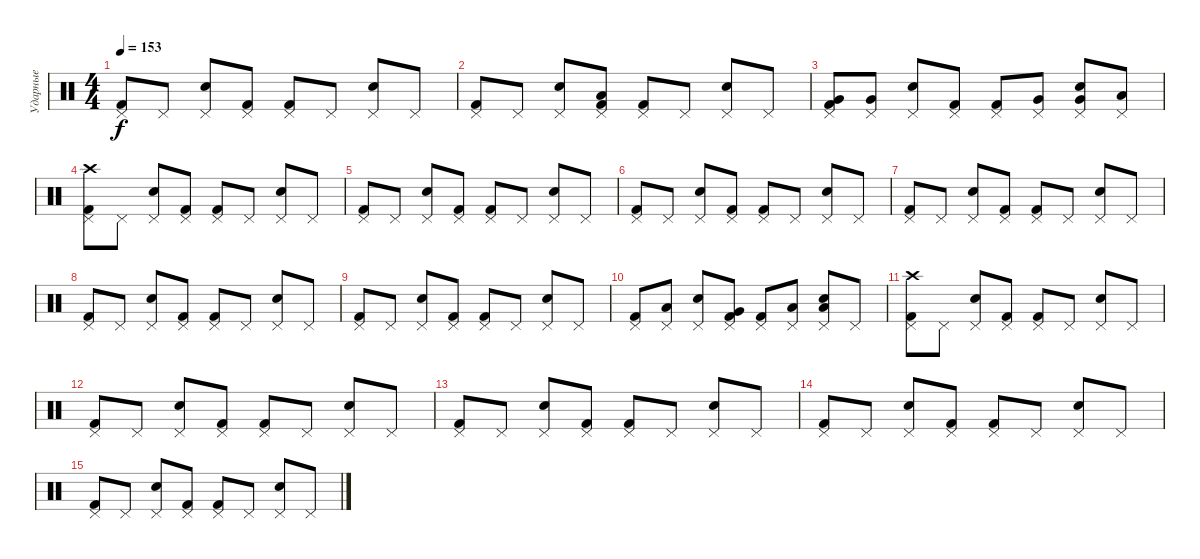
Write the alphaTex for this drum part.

\track ("Ударные" "Ударные") {instrument percussion}
\staff {score}
\articulation defaults
\ts (4 4)
\tempo 153
\clef neutral
\ks c
("Pedal Hi-Hat (hit)" "Kick (hit) 2").8{dy f} "Pedal Hi-Hat (hit)".8 ("Electric Snare (hit)" "Pedal Hi-Hat (hit)").8 ("Pedal Hi-Hat (hit)" "Kick (hit) 2").8 ("Pedal Hi-Hat (hit)" "Kick (hit) 2").8 "Pedal Hi-Hat (hit)".8 ("Electric Snare (hit)" "Pedal Hi-Hat (hit)").8 "Pedal Hi-Hat (hit)".8 |
("Pedal Hi-Hat (hit)" "Kick (hit) 2").8 "Pedal Hi-Hat (hit)".8 ("Electric Snare (hit)" "Pedal Hi-Hat (hit)").8 ("Low Tom (hit)" "Pedal Hi-Hat (hit)" "Kick (hit) 2").8 ("Pedal Hi-Hat (hit)" "Kick (hit) 2").8 "Pedal Hi-Hat (hit)".8 ("Electric Snare (hit)" "Pedal Hi-Hat (hit)").8 "Pedal Hi-Hat (hit)".8 |
("Very Low Tom (hit)" "Pedal Hi-Hat (hit)" "Kick (hit) 2").8 ("Very Low Tom (hit)" "Pedal Hi-Hat (hit)").8 ("Electric Snare (hit)" "Pedal Hi-Hat (hit)").8 ("Pedal Hi-Hat (hit)" "Kick (hit) 2").8 ("Pedal Hi-Hat (hit)" "Kick (hit) 2").8 ("Very Low Tom (hit)" "Pedal Hi-Hat (hit)").8 ("Very Low Tom (hit)" "Electric Snare (hit)" "Pedal Hi-Hat (hit)").8 ("Low Floor Tom (hit)" "Pedal Hi-Hat (hit)").8 |
("Crash high (hit)" "Pedal Hi-Hat (hit)" "Kick (hit) 2").8 "Pedal Hi-Hat (hit)".8 ("Electric Snare (hit)" "Pedal Hi-Hat (hit)").8 ("Pedal Hi-Hat (hit)" "Kick (hit) 2").8 ("Pedal Hi-Hat (hit)" "Kick (hit) 2").8 "Pedal Hi-Hat (hit)".8 ("Electric Snare (hit)" "Pedal Hi-Hat (hit)").8 "Pedal Hi-Hat (hit)".8 |
("Pedal Hi-Hat (hit)" "Kick (hit) 2").8{volume 10} "Pedal Hi-Hat (hit)".8 ("Electric Snare (hit)" "Pedal Hi-Hat (hit)").8 ("Pedal Hi-Hat (hit)" "Kick (hit) 2").8 ("Pedal Hi-Hat (hit)" "Kick (hit) 2").8 "Pedal Hi-Hat (hit)".8 ("Electric Snare (hit)" "Pedal Hi-Hat (hit)").8 "Pedal Hi-Hat (hit)".8 |
("Pedal Hi-Hat (hit)" "Kick (hit) 2").8 "Pedal Hi-Hat (hit)".8 ("Electric Snare (hit)" "Pedal Hi-Hat (hit)").8 ("Pedal Hi-Hat (hit)" "Kick (hit) 2").8 ("Pedal Hi-Hat (hit)" "Kick (hit) 2").8 "Pedal Hi-Hat (hit)".8 ("Electric Snare (hit)" "Pedal Hi-Hat (hit)").8 "Pedal Hi-Hat (hit)".8 |
("Pedal Hi-Hat (hit)" "Kick (hit) 2").8 "Pedal Hi-Hat (hit)".8 ("Electric Snare (hit)" "Pedal Hi-Hat (hit)").8 ("Pedal Hi-Hat (hit)" "Kick (hit) 2").8 ("Pedal Hi-Hat (hit)" "Kick (hit) 2").8 "Pedal Hi-Hat (hit)".8 ("Electric Snare (hit)" "Pedal Hi-Hat (hit)").8 "Pedal Hi-Hat (hit)".8 |
("Pedal Hi-Hat (hit)" "Kick (hit) 2").8{volume 7} "Pedal Hi-Hat (hit)".8 ("Electric Snare (hit)" "Pedal Hi-Hat (hit)").8 ("Pedal Hi-Hat (hit)" "Kick (hit) 2").8 ("Pedal Hi-Hat (hit)" "Kick (hit) 2").8 "Pedal Hi-Hat (hit)".8 ("Electric Snare (hit)" "Pedal Hi-Hat (hit)").8 "Pedal Hi-Hat (hit)".8 |
("Pedal Hi-Hat (hit)" "Kick (hit) 2").8 "Pedal Hi-Hat (hit)".8 ("Electric Snare (hit)" "Pedal Hi-Hat (hit)").8 ("Pedal Hi-Hat (hit)" "Kick (hit) 2").8 ("Pedal Hi-Hat (hit)" "Kick (hit) 2").8 "Pedal Hi-Hat (hit)".8 ("Electric Snare (hit)" "Pedal Hi-Hat (hit)").8 "Pedal Hi-Hat (hit)".8 |
("Pedal Hi-Hat (hit)" "Kick (hit) 2").8 ("Low Tom (hit)" "Pedal Hi-Hat (hit)").8 ("Electric Snare (hit)" "Pedal Hi-Hat (hit)").8 ("Very Low Tom (hit)" "Pedal Hi-Hat (hit)" "Kick (hit) 2").8 ("Pedal Hi-Hat (hit)" "Kick (hit) 2").8 ("Low Floor Tom (hit)" "Pedal Hi-Hat (hit)").8 ("Low Floor Tom (hit)" "Electric Snare (hit)" "Pedal Hi-Hat (hit)").8 "Pedal Hi-Hat (hit)".8 |
("Crash high (hit)" "Pedal Hi-Hat (hit)" "Kick (hit) 2").8{volume 3} "Pedal Hi-Hat (hit)".8 ("Electric Snare (hit)" "Pedal Hi-Hat (hit)").8 ("Pedal Hi-Hat (hit)" "Kick (hit) 2").8 ("Pedal Hi-Hat (hit)" "Kick (hit) 2").8 "Pedal Hi-Hat (hit)".8 ("Electric Snare (hit)" "Pedal Hi-Hat (hit)").8 "Pedal Hi-Hat (hit)".8 |
("Pedal Hi-Hat (hit)" "Kick (hit) 2").8 "Pedal Hi-Hat (hit)".8 ("Electric Snare (hit)" "Pedal Hi-Hat (hit)").8 ("Pedal Hi-Hat (hit)" "Kick (hit) 2").8 ("Pedal Hi-Hat (hit)" "Kick (hit) 2").8 "Pedal Hi-Hat (hit)".8 ("Electric Snare (hit)" "Pedal Hi-Hat (hit)").8 "Pedal Hi-Hat (hit)".8 |
("Pedal Hi-Hat (hit)" "Kick (hit) 2").8 "Pedal Hi-Hat (hit)".8 ("Electric Snare (hit)" "Pedal Hi-Hat (hit)").8 ("Pedal Hi-Hat (hit)" "Kick (hit) 2").8 ("Pedal Hi-Hat (hit)" "Kick (hit) 2").8 "Pedal Hi-Hat (hit)".8 ("Electric Snare (hit)" "Pedal Hi-Hat (hit)").8 "Pedal Hi-Hat (hit)".8 |
("Pedal Hi-Hat (hit)" "Kick (hit) 2").8 "Pedal Hi-Hat (hit)".8 ("Electric Snare (hit)" "Pedal Hi-Hat (hit)").8 ("Pedal Hi-Hat (hit)" "Kick (hit) 2").8 ("Pedal Hi-Hat (hit)" "Kick (hit) 2").8 "Pedal Hi-Hat (hit)".8 ("Electric Snare (hit)" "Pedal Hi-Hat (hit)").8 "Pedal Hi-Hat (hit)".8 |
("Pedal Hi-Hat (hit)" "Kick (hit) 2").8 "Pedal Hi-Hat (hit)".8 ("Electric Snare (hit)" "Pedal Hi-Hat (hit)").8 ("Pedal Hi-Hat (hit)" "Kick (hit) 2").8 ("Pedal Hi-Hat (hit)" "Kick (hit) 2").8 "Pedal Hi-Hat (hit)".8 ("Electric Snare (hit)" "Pedal Hi-Hat (hit)").8 "Pedal Hi-Hat (hit)".8
